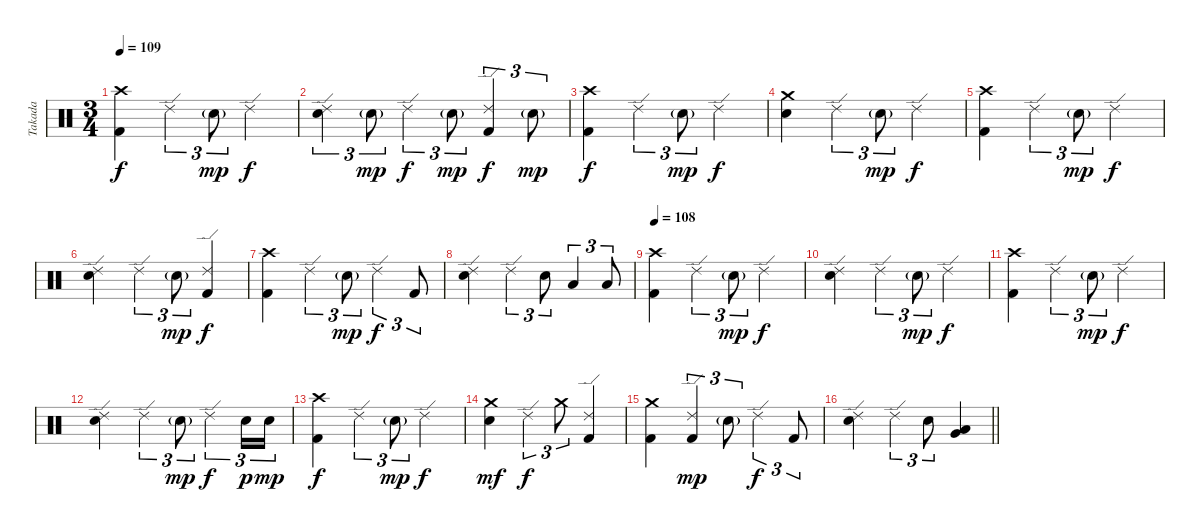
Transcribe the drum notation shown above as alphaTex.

\track ("Takada" "Takada") {instrument percussion}
\staff {score}
\articulation defaults
\ts (3 4)
\section ("" "")
\tempo 109
\clef neutral
\ks c
("Crash high (hit)" "Kick (hit) 2").4{dy f} "Ride (edge) 2".4{tu (3 2)} "Electric Snare (hit)"{g}.8{tu (3 2) dy mp} "Ride (edge) 2".4{dy f} |
("Ride (edge) 2" "Electric Snare (hit)").4{tu (3 2)} "Electric Snare (hit)"{g}.8{tu (3 2) dy mp} "Ride (edge) 2".4{tu (3 2) dy f} "Electric Snare (hit)"{g}.8{tu (3 2) dy mp} ("Ride (edge) 2" "Kick (hit) 2").4{tu (3 2) dy f} "Electric Snare (hit)"{g}.8{tu (3 2) dy mp} |
("Crash high (hit)" "Kick (hit) 2").4{dy f} "Ride (edge) 2".4{tu (3 2)} "Electric Snare (hit)"{g}.8{tu (3 2) dy mp} "Ride (edge) 2".4{dy f} |
("Crash medium (hit)" "Electric Snare (hit)").4 "Ride (edge) 2".4{tu (3 2)} "Electric Snare (hit)"{g}.8{tu (3 2) dy mp} "Ride (edge) 2".4{dy f} |
("Crash high (hit)" "Kick (hit) 2").4 "Ride (edge) 2".4{tu (3 2)} "Electric Snare (hit)"{g}.8{tu (3 2) dy mp} "Ride (edge) 2".4{dy f} |
("Ride (edge) 2" "Electric Snare (hit)").4 "Ride (edge) 2".4{tu (3 2)} "Electric Snare (hit)"{g}.8{tu (3 2) dy mp} ("Ride (edge) 2" "Kick (hit) 2").4{dy f} |
("Crash high (hit)" "Kick (hit) 2").4 "Ride (edge) 2".4{tu (3 2)} "Electric Snare (hit)"{g}.8{tu (3 2) dy mp} "Ride (edge) 2".4{tu (3 2) dy f} "Kick (hit) 2".8{tu (3 2)} |
("Ride (edge) 2" "Electric Snare (hit)").4 "Ride (edge) 2".4{tu (3 2)} "Electric Snare (hit)".8{tu (3 2)} "Low Tom (hit)".4{tu (3 2)} "Low Floor Tom (hit)".8{tu (3 2)} |
\tempo 108
("Crash high (hit)" "Kick (hit) 2").4 "Ride (edge) 2".4{tu (3 2)} "Electric Snare (hit)"{g}.8{tu (3 2) dy mp} "Ride (edge) 2".4{dy f} |
("Ride (edge) 2" "Electric Snare (hit)").4 "Ride (edge) 2".4{tu (3 2)} "Electric Snare (hit)"{g}.8{tu (3 2) dy mp} "Ride (edge) 2".4{dy f} |
("Crash high (hit)" "Kick (hit) 2").4 "Ride (edge) 2".4{tu (3 2)} "Electric Snare (hit)"{g}.8{tu (3 2) dy mp} "Ride (edge) 2".4{dy f} |
("Ride (edge) 2" "Electric Snare (hit)").4 "Ride (edge) 2".4{tu (3 2)} "Electric Snare (hit)"{g}.8{tu (3 2) dy mp} "Ride (edge) 2".4{tu (3 2) dy f} "Electric Snare (hit)".16{tu (3 2) dy p} "Electric Snare (hit)".16{tu (3 2) dy mp} |
("Crash high (hit)" "Kick (hit) 2").4{dy f} "Ride (edge) 2".4{tu (3 2)} "Electric Snare (hit)"{g}.8{tu (3 2) dy mp} "Ride (edge) 2".4{dy f} |
("Crash medium (hit)" "Electric Snare (hit)").4{dy mf} "Ride (edge) 2".4{tu (3 2) dy f} "Crash medium (hit)".8{tu (3 2)} ("Ride (edge) 2" "Kick (hit) 2").4 |
("Crash medium (hit)" "Kick (hit) 2").4 ("Ride (edge) 2" "Kick (hit) 2").4{tu (3 2) dy mp} "Electric Snare (hit)"{g}.8{tu (3 2)} "Ride (edge) 2".4{tu (3 2) dy f} "Kick (hit) 2".8{tu (3 2)} |
\barLineRight lightlight
("Ride (edge) 2" "Electric Snare (hit)").4 "Ride (edge) 2".4{tu (3 2)} "Electric Snare (hit)".8{tu (3 2)} ("Very Low Tom (hit)" "Low Floor Tom (hit)").4
